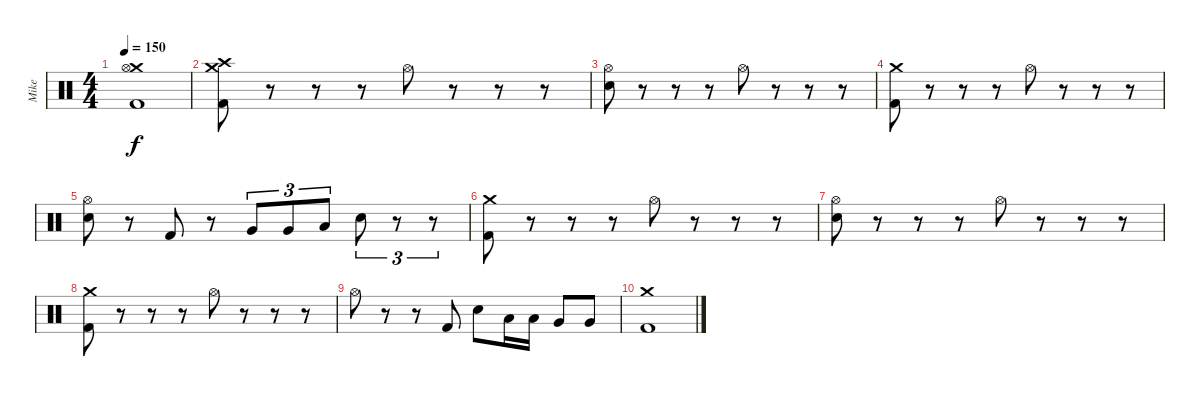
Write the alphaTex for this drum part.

\track ("Mike" "Mike") {instrument percussion}
\staff {score}
\articulation defaults
\ts (4 4)
\tempo 150
\clef neutral
\ks c
("Crash medium (hit)" "Hi-Hat (open)" "Kick (hit) 2").1{dy f} |
("Crash medium (hit)" "Crash high (hit)" "Kick (hit) 2").8 r.8 r.8 r.8 "Hi-Hat (open)".8 r.8 r.8 r.8 |
("Hi-Hat (open)" "Electric Snare (hit)").8 r.8 r.8 r.8 "Hi-Hat (open)".8 r.8 r.8 r.8 |
("Crash medium (hit)" "Kick (hit) 2").8 r.8 r.8 r.8 "Hi-Hat (open)".8 r.8 r.8 r.8 |
("Hi-Hat (open)" "Electric Snare (hit)").8 r.8 "Kick (hit) 2".8 r.8 "Very Low Tom (hit)".8{tu (3 2)} "Very Low Tom (hit)".8{tu (3 2)} "Low Tom (hit)".8{tu (3 2)} "Electric Snare (hit)".8{tu (3 2)} r.8{tu (3 2)} r.8{tu (3 2)} |
("Crash medium (hit)" "Kick (hit) 2").8 r.8 r.8 r.8 "Hi-Hat (open)".8 r.8 r.8 r.8 |
("Hi-Hat (open)" "Electric Snare (hit)").8 r.8 r.8 r.8 "Hi-Hat (open)".8 r.8 r.8 r.8 |
("Crash medium (hit)" "Kick (hit) 2").8 r.8 r.8 r.8 "Hi-Hat (open)".8 r.8 r.8 r.8 |
"Hi-Hat (open)".8 r.8 r.8 "Kick (hit) 2".8 "Electric Snare (hit)".8 "Low Tom (hit)".16 "Low Tom (hit)".16 "Very Low Tom (hit)".8 "Very Low Tom (hit)".8 |
("Crash medium (hit)" "Kick (hit) 2").1
